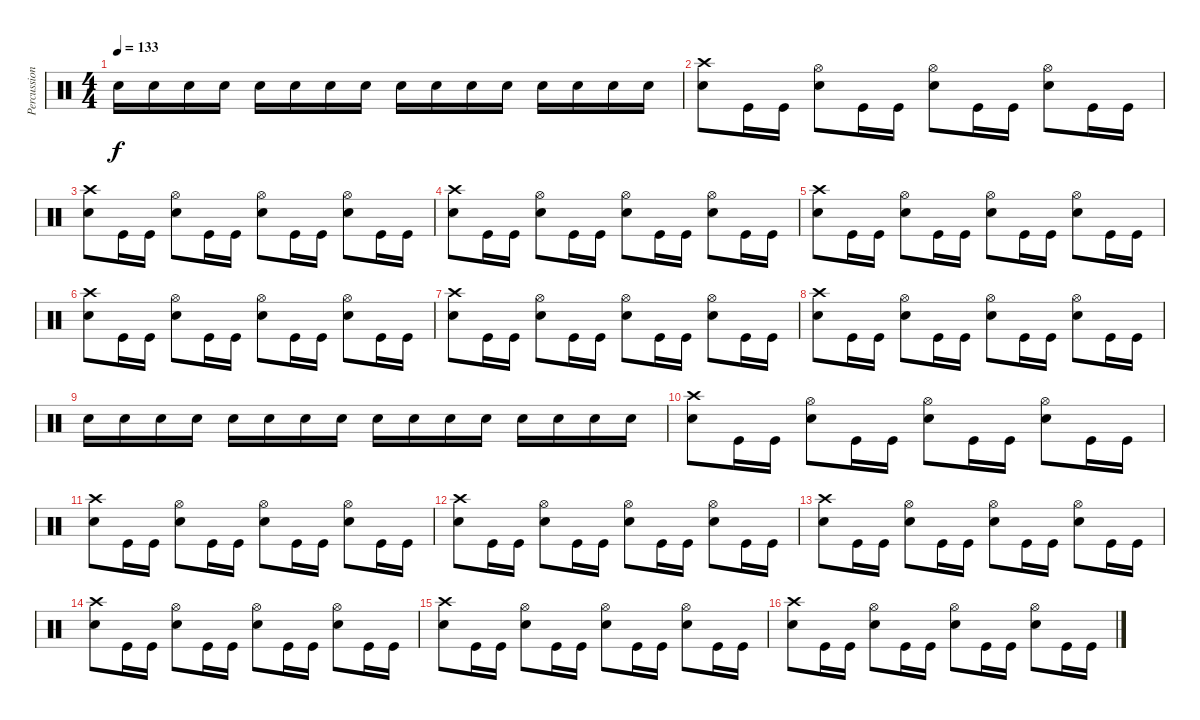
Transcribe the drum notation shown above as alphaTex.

\track ("Percussion" "Percussion") {instrument percussion}
\staff {score}
\articulation defaults
\ts (4 4)
\tempo 133
\clef neutral
\ks c "Electric Snare (hit)".16{dy f} "Electric Snare (hit)".16 "Electric Snare (hit)".16 "Electric Snare (hit)".16 "Electric Snare (hit)".16 "Electric Snare (hit)".16 "Electric Snare (hit)".16 "Electric Snare (hit)".16 "Electric Snare (hit)".16 "Electric Snare (hit)".16 "Electric Snare (hit)".16 "Electric Snare (hit)".16 "Electric Snare (hit)".16 "Electric Snare (hit)".16 "Electric Snare (hit)".16 "Electric Snare (hit)".16
|
("Crash high (hit)" "Electric Snare (hit)").8 "Kick (hit)".16 "Kick (hit)".16 ("Hi-Hat (open)" "Electric Snare (hit)").8 "Kick (hit)".16 "Kick (hit)".16 ("Hi-Hat (open)" "Electric Snare (hit)").8 "Kick (hit)".16 "Kick (hit)".16 ("Hi-Hat (open)" "Electric Snare (hit)").8 "Kick (hit)".16 "Kick (hit)".16 |
("Crash high (hit)" "Electric Snare (hit)").8 "Kick (hit)".16 "Kick (hit)".16 ("Hi-Hat (open)" "Electric Snare (hit)").8 "Kick (hit)".16 "Kick (hit)".16 ("Hi-Hat (open)" "Electric Snare (hit)").8 "Kick (hit)".16 "Kick (hit)".16 ("Hi-Hat (open)" "Electric Snare (hit)").8 "Kick (hit)".16 "Kick (hit)".16 |
("Crash high (hit)" "Electric Snare (hit)").8 "Kick (hit)".16 "Kick (hit)".16 ("Hi-Hat (open)" "Electric Snare (hit)").8 "Kick (hit)".16 "Kick (hit)".16 ("Hi-Hat (open)" "Electric Snare (hit)").8 "Kick (hit)".16 "Kick (hit)".16 ("Hi-Hat (open)" "Electric Snare (hit)").8 "Kick (hit)".16 "Kick (hit)".16 |
("Crash high (hit)" "Electric Snare (hit)").8 "Kick (hit)".16 "Kick (hit)".16 ("Hi-Hat (open)" "Electric Snare (hit)").8 "Kick (hit)".16 "Kick (hit)".16 ("Hi-Hat (open)" "Electric Snare (hit)").8 "Kick (hit)".16 "Kick (hit)".16 ("Hi-Hat (open)" "Electric Snare (hit)").8 "Kick (hit)".16 "Kick (hit)".16 |
("Crash high (hit)" "Electric Snare (hit)").8 "Kick (hit)".16 "Kick (hit)".16 ("Hi-Hat (open)" "Electric Snare (hit)").8 "Kick (hit)".16 "Kick (hit)".16 ("Hi-Hat (open)" "Electric Snare (hit)").8 "Kick (hit)".16 "Kick (hit)".16 ("Hi-Hat (open)" "Electric Snare (hit)").8 "Kick (hit)".16 "Kick (hit)".16 |
("Crash high (hit)" "Electric Snare (hit)").8 "Kick (hit)".16 "Kick (hit)".16 ("Hi-Hat (open)" "Electric Snare (hit)").8 "Kick (hit)".16 "Kick (hit)".16 ("Hi-Hat (open)" "Electric Snare (hit)").8 "Kick (hit)".16 "Kick (hit)".16 ("Hi-Hat (open)" "Electric Snare (hit)").8 "Kick (hit)".16 "Kick (hit)".16 |
("Crash high (hit)" "Electric Snare (hit)").8 "Kick (hit)".16 "Kick (hit)".16 ("Hi-Hat (open)" "Electric Snare (hit)").8 "Kick (hit)".16 "Kick (hit)".16 ("Hi-Hat (open)" "Electric Snare (hit)").8 "Kick (hit)".16 "Kick (hit)".16 ("Hi-Hat (open)" "Electric Snare (hit)").8 "Kick (hit)".16 "Kick (hit)".16 |
"Electric Snare (hit)".16 "Electric Snare (hit)".16 "Electric Snare (hit)".16 "Electric Snare (hit)".16 "Electric Snare (hit)".16 "Electric Snare (hit)".16 "Electric Snare (hit)".16 "Electric Snare (hit)".16 "Electric Snare (hit)".16 "Electric Snare (hit)".16 "Electric Snare (hit)".16 "Electric Snare (hit)".16 "Electric Snare (hit)".16 "Electric Snare (hit)".16 "Electric Snare (hit)".16 "Electric Snare (hit)".16 |
("Crash high (hit)" "Electric Snare (hit)").8 "Kick (hit)".16 "Kick (hit)".16 ("Hi-Hat (open)" "Electric Snare (hit)").8 "Kick (hit)".16 "Kick (hit)".16 ("Hi-Hat (open)" "Electric Snare (hit)").8 "Kick (hit)".16 "Kick (hit)".16 ("Hi-Hat (open)" "Electric Snare (hit)").8 "Kick (hit)".16 "Kick (hit)".16 |
("Crash high (hit)" "Electric Snare (hit)").8 "Kick (hit)".16 "Kick (hit)".16 ("Hi-Hat (open)" "Electric Snare (hit)").8 "Kick (hit)".16 "Kick (hit)".16 ("Hi-Hat (open)" "Electric Snare (hit)").8 "Kick (hit)".16 "Kick (hit)".16 ("Hi-Hat (open)" "Electric Snare (hit)").8 "Kick (hit)".16 "Kick (hit)".16 |
("Crash high (hit)" "Electric Snare (hit)").8 "Kick (hit)".16 "Kick (hit)".16 ("Hi-Hat (open)" "Electric Snare (hit)").8 "Kick (hit)".16 "Kick (hit)".16 ("Hi-Hat (open)" "Electric Snare (hit)").8 "Kick (hit)".16 "Kick (hit)".16 ("Hi-Hat (open)" "Electric Snare (hit)").8 "Kick (hit)".16 "Kick (hit)".16 |
("Crash high (hit)" "Electric Snare (hit)").8 "Kick (hit)".16 "Kick (hit)".16 ("Hi-Hat (open)" "Electric Snare (hit)").8 "Kick (hit)".16 "Kick (hit)".16 ("Hi-Hat (open)" "Electric Snare (hit)").8 "Kick (hit)".16 "Kick (hit)".16 ("Hi-Hat (open)" "Electric Snare (hit)").8 "Kick (hit)".16 "Kick (hit)".16 |
("Crash high (hit)" "Electric Snare (hit)").8 "Kick (hit)".16 "Kick (hit)".16 ("Hi-Hat (open)" "Electric Snare (hit)").8 "Kick (hit)".16 "Kick (hit)".16 ("Hi-Hat (open)" "Electric Snare (hit)").8 "Kick (hit)".16 "Kick (hit)".16 ("Hi-Hat (open)" "Electric Snare (hit)").8 "Kick (hit)".16 "Kick (hit)".16 |
("Crash high (hit)" "Electric Snare (hit)").8 "Kick (hit)".16 "Kick (hit)".16 ("Hi-Hat (open)" "Electric Snare (hit)").8 "Kick (hit)".16 "Kick (hit)".16 ("Hi-Hat (open)" "Electric Snare (hit)").8 "Kick (hit)".16 "Kick (hit)".16 ("Hi-Hat (open)" "Electric Snare (hit)").8 "Kick (hit)".16 "Kick (hit)".16 |
("Crash high (hit)" "Electric Snare (hit)").8 "Kick (hit)".16 "Kick (hit)".16 ("Hi-Hat (open)" "Electric Snare (hit)").8 "Kick (hit)".16 "Kick (hit)".16 ("Hi-Hat (open)" "Electric Snare (hit)").8 "Kick (hit)".16 "Kick (hit)".16 ("Hi-Hat (open)" "Electric Snare (hit)").8 "Kick (hit)".16 "Kick (hit)".16
